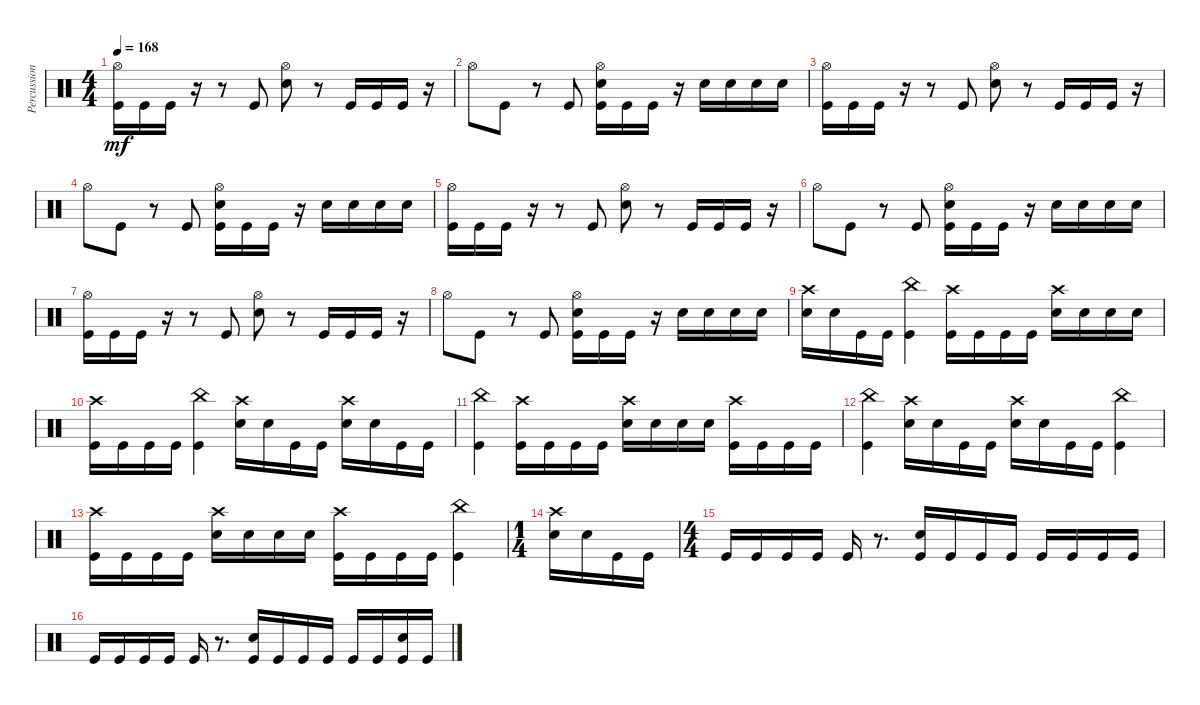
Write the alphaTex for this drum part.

\track ("Percussion" "Percussion") {instrument percussion}
\staff {score}
\articulation defaults
\ts (4 4)
\tempo 168
\clef neutral
\ks c
("Hi-Hat (open)" "Kick (hit)").16{dy mf} "Kick (hit)".16 "Kick (hit)".16 r.16 r.8 "Kick (hit)".8 ("Hi-Hat (open)" "Electric Snare (hit)").8 r.8 "Kick (hit)".16 "Kick (hit)".16 "Kick (hit)".16 r.16 |
"Hi-Hat (open)".8 "Kick (hit)".8 r.8 "Kick (hit)".8 ("Hi-Hat (open)" "Electric Snare (hit)" "Kick (hit)").16 "Kick (hit)".16 "Kick (hit)".16 r.16 "Electric Snare (hit)".16 "Electric Snare (hit)".16 "Electric Snare (hit)".16 "Electric Snare (hit)".16 |
("Hi-Hat (open)" "Kick (hit)").16 "Kick (hit)".16 "Kick (hit)".16 r.16 r.8 "Kick (hit)".8 ("Hi-Hat (open)" "Electric Snare (hit)").8 r.8 "Kick (hit)".16 "Kick (hit)".16 "Kick (hit)".16 r.16 |
"Hi-Hat (open)".8 "Kick (hit)".8 r.8 "Kick (hit)".8 ("Hi-Hat (open)" "Electric Snare (hit)" "Kick (hit)").16 "Kick (hit)".16 "Kick (hit)".16 r.16 "Electric Snare (hit)".16 "Electric Snare (hit)".16 "Electric Snare (hit)".16 "Electric Snare (hit)".16 |
("Hi-Hat (open)" "Kick (hit)").16 "Kick (hit)".16 "Kick (hit)".16 r.16 r.8 "Kick (hit)".8 ("Hi-Hat (open)" "Electric Snare (hit)").8 r.8 "Kick (hit)".16 "Kick (hit)".16 "Kick (hit)".16 r.16 |
"Hi-Hat (open)".8 "Kick (hit)".8 r.8 "Kick (hit)".8 ("Hi-Hat (open)" "Electric Snare (hit)" "Kick (hit)").16 "Kick (hit)".16 "Kick (hit)".16 r.16 "Electric Snare (hit)".16 "Electric Snare (hit)".16 "Electric Snare (hit)".16 "Electric Snare (hit)".16 |
("Hi-Hat (open)" "Kick (hit)").16 "Kick (hit)".16 "Kick (hit)".16 r.16 r.8 "Kick (hit)".8 ("Hi-Hat (open)" "Electric Snare (hit)").8 r.8 "Kick (hit)".16 "Kick (hit)".16 "Kick (hit)".16 r.16 |
"Hi-Hat (open)".8 "Kick (hit)".8 r.8 "Kick (hit)".8 ("Hi-Hat (open)" "Electric Snare (hit)" "Kick (hit)").16 "Kick (hit)".16 "Kick (hit)".16 r.16 "Electric Snare (hit)".16 "Electric Snare (hit)".16 "Electric Snare (hit)".16 "Electric Snare (hit)".16 |
("Crash high (hit)" "Electric Snare (hit)").16 "Electric Snare (hit)".16 "Kick (hit)".16 "Kick (hit)".16 ("China (hit)" "Kick (hit)").4 ("Crash high (hit)" "Kick (hit)").16 "Kick (hit)".16 "Kick (hit)".16 "Kick (hit)".16 ("Crash high (hit)" "Electric Snare (hit)").16 "Electric Snare (hit)".16 "Electric Snare (hit)".16 "Electric Snare (hit)".16 |
("Crash high (hit)" "Kick (hit)").16 "Kick (hit)".16 "Kick (hit)".16 "Kick (hit)".16 ("China (hit)" "Kick (hit)").4 ("Crash high (hit)" "Electric Snare (hit)").16 "Electric Snare (hit)".16 "Kick (hit)".16 "Kick (hit)".16 ("Crash high (hit)" "Electric Snare (hit)").16 "Electric Snare (hit)".16 "Kick (hit)".16 "Kick (hit)".16 |
("China (hit)" "Kick (hit)").4 ("Crash high (hit)" "Kick (hit)").16 "Kick (hit)".16 "Kick (hit)".16 "Kick (hit)".16 ("Crash high (hit)" "Electric Snare (hit)").16 "Electric Snare (hit)".16 "Electric Snare (hit)".16 "Electric Snare (hit)".16 ("Crash high (hit)" "Kick (hit)").16 "Kick (hit)".16 "Kick (hit)".16 "Kick (hit)".16 |
("China (hit)" "Kick (hit)").4 ("Crash high (hit)" "Electric Snare (hit)").16 "Electric Snare (hit)".16 "Kick (hit)".16 "Kick (hit)".16 ("Crash high (hit)" "Electric Snare (hit)").16 "Electric Snare (hit)".16 "Kick (hit)".16 "Kick (hit)".16 ("China (hit)" "Kick (hit)").4 |
("Crash high (hit)" "Kick (hit)").16 "Kick (hit)".16 "Kick (hit)".16 "Kick (hit)".16 ("Crash high (hit)" "Electric Snare (hit)").16 "Electric Snare (hit)".16 "Electric Snare (hit)".16 "Electric Snare (hit)".16 ("Crash high (hit)" "Kick (hit)").16 "Kick (hit)".16 "Kick (hit)".16 "Kick (hit)".16 ("China (hit)" "Kick (hit)").4 |
\ts (1 4)
("Crash high (hit)" "Electric Snare (hit)").16 "Electric Snare (hit)".16 "Kick (hit)".16 "Kick (hit)".16 |
\ts (4 4)
"Kick (hit)".16 "Kick (hit)".16 "Kick (hit)".16 "Kick (hit)".16 "Kick (hit)".16 r.8{d} ("Electric Snare (hit)" "Kick (hit)").16 "Kick (hit)".16 "Kick (hit)".16 "Kick (hit)".16 "Kick (hit)".16 "Kick (hit)".16 "Kick (hit)".16 "Kick (hit)".16 |
"Kick (hit)".16 "Kick (hit)".16 "Kick (hit)".16 "Kick (hit)".16 "Kick (hit)".16 r.8{d} ("Electric Snare (hit)" "Kick (hit)").16 "Kick (hit)".16 "Kick (hit)".16 "Kick (hit)".16 "Kick (hit)".16 "Kick (hit)".16 ("Electric Snare (hit)" "Kick (hit)").16 "Kick (hit)".16
